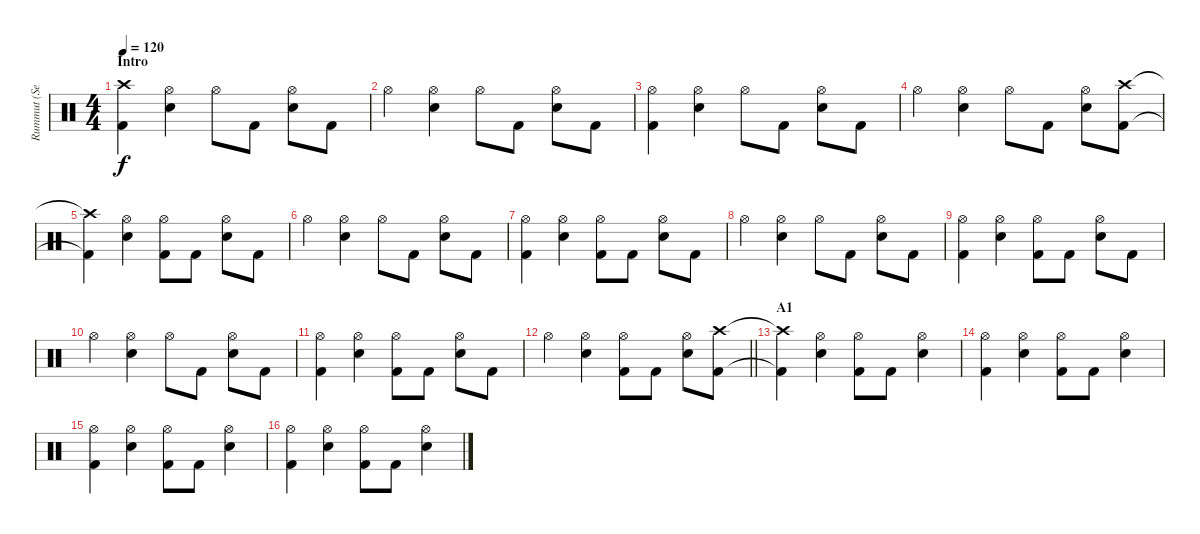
\track ("Rummut (Seppo Pohjolainen)" "Rummut (Se") {instrument percussion}
\staff {score}
\articulation defaults
\ts (4 4)
\section ("" "Intro")
\tempo 120
\clef neutral
\ks c
("Crash high (hit)" "Kick (hit) 2").4{dy f} ("Hi-Hat (open)" "Electric Snare (hit)").4 "Hi-Hat (open)".8 "Kick (hit) 2".8 ("Hi-Hat (open)" "Electric Snare (hit)").8 "Kick (hit) 2".8 |
"Hi-Hat (open)".4 ("Hi-Hat (open)" "Electric Snare (hit)").4 "Hi-Hat (open)".8 "Kick (hit) 2".8 ("Hi-Hat (open)" "Electric Snare (hit)").8 "Kick (hit) 2".8 |
("Hi-Hat (open)" "Kick (hit) 2").4 ("Hi-Hat (open)" "Electric Snare (hit)").4 "Hi-Hat (open)".8 "Kick (hit) 2".8 ("Hi-Hat (open)" "Electric Snare (hit)").8 "Kick (hit) 2".8 |
"Hi-Hat (open)".4 ("Hi-Hat (open)" "Electric Snare (hit)").4 "Hi-Hat (open)".8 "Kick (hit) 2".8 ("Hi-Hat (open)" "Electric Snare (hit)").8 ("Crash high (hit)" "Kick (hit) 2").8 |
("Crash high (hit)"{t} "Kick (hit) 2"{t}).4 ("Hi-Hat (open)" "Electric Snare (hit)").4 ("Hi-Hat (open)" "Kick (hit) 2").8 "Kick (hit) 2".8 ("Hi-Hat (open)" "Electric Snare (hit)").8 "Kick (hit) 2".8 |
"Hi-Hat (open)".4 ("Hi-Hat (open)" "Electric Snare (hit)").4 "Hi-Hat (open)".8 "Kick (hit) 2".8 ("Hi-Hat (open)" "Electric Snare (hit)").8 "Kick (hit) 2".8 |
("Hi-Hat (open)" "Kick (hit) 2").4 ("Hi-Hat (open)" "Electric Snare (hit)").4 ("Hi-Hat (open)" "Kick (hit) 2").8 "Kick (hit) 2".8 ("Hi-Hat (open)" "Electric Snare (hit)").8 "Kick (hit) 2".8 |
"Hi-Hat (open)".4 ("Hi-Hat (open)" "Electric Snare (hit)").4 "Hi-Hat (open)".8 "Kick (hit) 2".8 ("Hi-Hat (open)" "Electric Snare (hit)").8 "Kick (hit) 2".8 |
("Hi-Hat (open)" "Kick (hit) 2").4 ("Hi-Hat (open)" "Electric Snare (hit)").4 ("Hi-Hat (open)" "Kick (hit) 2").8 "Kick (hit) 2".8 ("Hi-Hat (open)" "Electric Snare (hit)").8 "Kick (hit) 2".8 |
"Hi-Hat (open)".4 ("Hi-Hat (open)" "Electric Snare (hit)").4 "Hi-Hat (open)".8 "Kick (hit) 2".8 ("Hi-Hat (open)" "Electric Snare (hit)").8 "Kick (hit) 2".8 |
("Hi-Hat (open)" "Kick (hit) 2").4 ("Hi-Hat (open)" "Electric Snare (hit)").4 ("Hi-Hat (open)" "Kick (hit) 2").8 "Kick (hit) 2".8 ("Hi-Hat (open)" "Electric Snare (hit)").8 "Kick (hit) 2".8 |
\barLineRight lightlight "Hi-Hat (open)".4
("Hi-Hat (open)" "Electric Snare (hit)").4 ("Hi-Hat (open)" "Kick (hit) 2").8 "Kick (hit) 2".8 ("Hi-Hat (open)" "Electric Snare (hit)").8 ("Crash high (hit)" "Kick (hit) 2").8 |
\section ("" "A1")
("Crash high (hit)"{t} "Kick (hit) 2"{t}).4 ("Hi-Hat (open)" "Electric Snare (hit)").4 ("Hi-Hat (open)" "Kick (hit) 2").8 "Kick (hit) 2".8 ("Hi-Hat (open)" "Electric Snare (hit)").4 |
("Hi-Hat (open)" "Kick (hit) 2").4 ("Hi-Hat (open)" "Electric Snare (hit)").4 ("Hi-Hat (open)" "Kick (hit) 2").8 "Kick (hit) 2".8 ("Hi-Hat (open)" "Electric Snare (hit)").4 |
("Hi-Hat (open)" "Kick (hit) 2").4 ("Hi-Hat (open)" "Electric Snare (hit)").4 ("Hi-Hat (open)" "Kick (hit) 2").8 "Kick (hit) 2".8 ("Hi-Hat (open)" "Electric Snare (hit)").4 |
("Hi-Hat (open)" "Kick (hit) 2").4 ("Hi-Hat (open)" "Electric Snare (hit)").4 ("Hi-Hat (open)" "Kick (hit) 2").8 "Kick (hit) 2".8 ("Hi-Hat (open)" "Electric Snare (hit)").4
